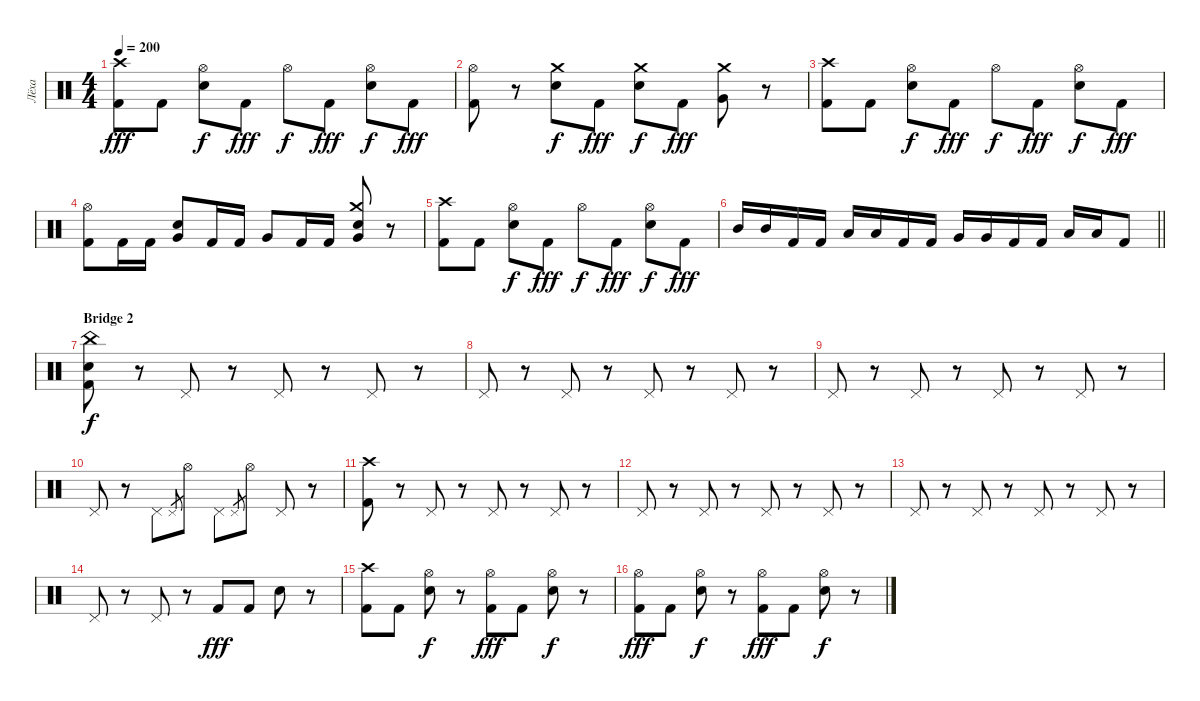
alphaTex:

\track ("Лёха" "Лёха") {instrument percussion}
\staff {score}
\articulation defaults
\ts (4 4)
\tempo 200
\clef neutral
\ks c
("Crash high (hit)" "Kick (hit) 2").8{dy fff} "Kick (hit) 2".8 ("Hi-Hat (open)" "Electric Snare (hit)").8{dy f} "Kick (hit) 2".8{dy fff} "Hi-Hat (open)".8{dy f} "Kick (hit) 2".8{dy fff} ("Hi-Hat (open)" "Electric Snare (hit)").8{dy f} "Kick (hit) 2".8{dy fff} |
("Hi-Hat (open)" "Kick (hit) 2").8 r.8 ("Crash medium (hit)" "Electric Snare (hit)").8{dy f} "Kick (hit) 2".8{dy fff} ("Crash medium (hit)" "Electric Snare (hit)").8{dy f} "Kick (hit) 2".8{dy fff} ("Crash medium (hit)" "Very Low Tom (hit)").8 r.8 |
("Crash high (hit)" "Kick (hit) 2").8 "Kick (hit) 2".8 ("Hi-Hat (open)" "Electric Snare (hit)").8{dy f} "Kick (hit) 2".8{dy fff} "Hi-Hat (open)".8{dy f} "Kick (hit) 2".8{dy fff} ("Hi-Hat (open)" "Electric Snare (hit)").8{dy f} "Kick (hit) 2".8{dy fff} |
("Hi-Hat (open)" "Kick (hit) 2").8 "Kick (hit) 2".16 "Kick (hit) 2".16 ("Electric Snare (hit)" "Very Low Tom (hit)").8 "Kick (hit) 2".16 "Kick (hit) 2".16 "Very Low Tom (hit)".8 "Kick (hit) 2".16 "Kick (hit) 2".16 ("Crash medium (hit)" "Electric Snare (hit)" "Very Low Tom (hit)").8 r.8 |
("Crash high (hit)" "Kick (hit) 2").8 "Kick (hit) 2".8 ("Hi-Hat (open)" "Electric Snare (hit)").8{dy f} "Kick (hit) 2".8{dy fff} "Hi-Hat (open)".8{dy f} "Kick (hit) 2".8{dy fff} ("Hi-Hat (open)" "Electric Snare (hit)").8{dy f} "Kick (hit) 2".8{dy fff} |
\barLineRight lightlight "Mid Tom (hit)".16 "Mid Tom (hit)".16 "Kick (hit) 2".16 "Kick (hit) 2".16 "Low Tom (hit)".16 "Low Tom (hit)".16 "Kick (hit) 2".16 "Kick (hit) 2".16 "Very Low Tom (hit)".16 "Very Low Tom (hit)".16 "Kick (hit) 2".16 "Kick (hit) 2".16 "Low Floor Tom (hit)".16 "Low Floor Tom (hit)".16 "Kick (hit) 2".8
|
\section ("" "Bridge 2")
("China (hit)" "Electric Snare (hit)" "Kick (hit) 2").8{dy f} r.8 "Pedal Hi-Hat (hit)".8 r.8 "Pedal Hi-Hat (hit)".8 r.8 "Pedal Hi-Hat (hit)".8 r.8 |
"Pedal Hi-Hat (hit)".8 r.8 "Pedal Hi-Hat (hit)".8 r.8 "Pedal Hi-Hat (hit)".8 r.8 "Pedal Hi-Hat (hit)".8 r.8 |
"Pedal Hi-Hat (hit)".8 r.8 "Pedal Hi-Hat (hit)".8 r.8 "Pedal Hi-Hat (hit)".8 r.8 "Pedal Hi-Hat (hit)".8 r.8 |
"Pedal Hi-Hat (hit)".8 r.8 "Pedal Hi-Hat (hit)".8 "Pedal Hi-Hat (hit)".8{gr} "Hi-Hat (open)".8 "Pedal Hi-Hat (hit)".8 "Pedal Hi-Hat (hit)".8{gr} "Hi-Hat (open)".8 "Pedal Hi-Hat (hit)".8 r.8 |
("Crash high (hit)" "Kick (hit) 2").8 r.8 "Pedal Hi-Hat (hit)".8 r.8 "Pedal Hi-Hat (hit)".8 r.8 "Pedal Hi-Hat (hit)".8 r.8 |
"Pedal Hi-Hat (hit)".8 r.8 "Pedal Hi-Hat (hit)".8 r.8 "Pedal Hi-Hat (hit)".8 r.8 "Pedal Hi-Hat (hit)".8 r.8 |
"Pedal Hi-Hat (hit)".8 r.8 "Pedal Hi-Hat (hit)".8 r.8 "Pedal Hi-Hat (hit)".8 r.8 "Pedal Hi-Hat (hit)".8 r.8 |
"Pedal Hi-Hat (hit)".8 r.8 "Pedal Hi-Hat (hit)".8 r.8 "Kick (hit) 2".8{dy fff} "Kick (hit) 2".8 "Electric Snare (hit)".8 r.8 |
("Crash high (hit)" "Kick (hit) 2").8 "Kick (hit) 2".8 ("Hi-Hat (open)" "Electric Snare (hit)").8{dy f} r.8 ("Hi-Hat (open)" "Kick (hit) 2").8{dy fff} "Kick (hit) 2".8 ("Hi-Hat (open)" "Electric Snare (hit)").8{dy f} r.8 |
("Hi-Hat (open)" "Kick (hit) 2").8{dy fff} "Kick (hit) 2".8 ("Hi-Hat (open)" "Electric Snare (hit)").8{dy f} r.8 ("Hi-Hat (open)" "Kick (hit) 2").8{dy fff} "Kick (hit) 2".8 ("Hi-Hat (open)" "Electric Snare (hit)").8{dy f} r.8
